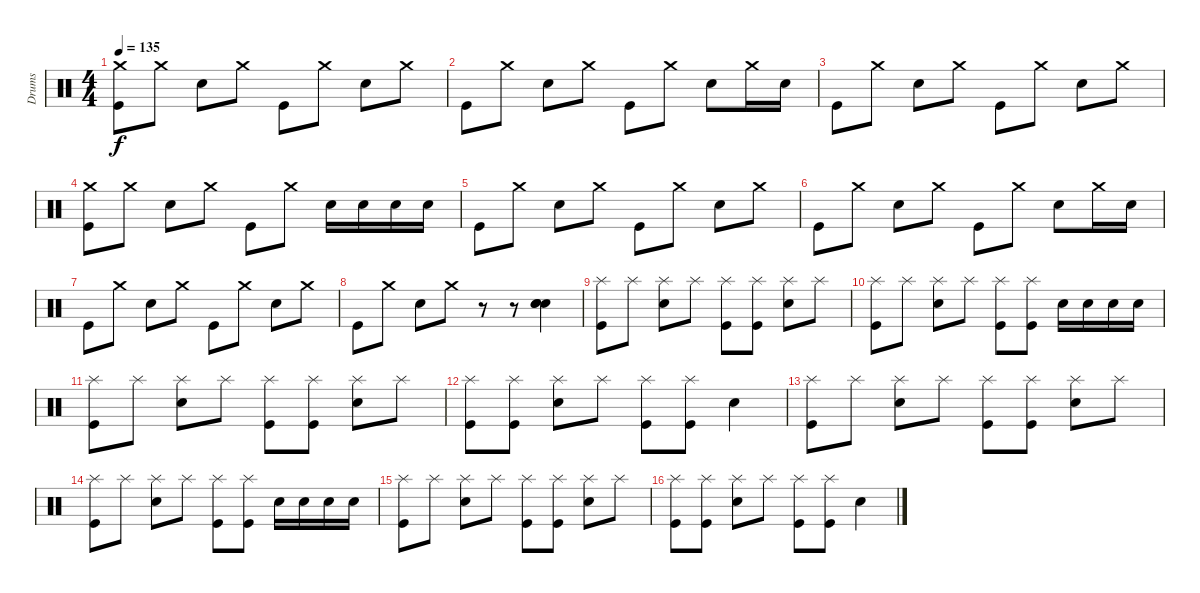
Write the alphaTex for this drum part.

\track ("Drums" "Drums") {instrument percussion}
\staff {score}
\articulation defaults
\ts (4 4)
\tempo 135
\clef neutral
\ks c
("Crash medium (hit)" "Kick (hit)").8{dy f} "Crash medium (hit)".8 "Electric Snare (hit)".8 "Crash medium (hit)".8 "Kick (hit)".8 "Crash medium (hit)".8 "Electric Snare (hit)".8 "Crash medium (hit)".8 |
"Kick (hit)".8 "Crash medium (hit)".8 "Electric Snare (hit)".8 "Crash medium (hit)".8 "Kick (hit)".8 "Crash medium (hit)".8 "Electric Snare (hit)".8 "Crash medium (hit)".16 "Electric Snare (hit)".16 |
"Kick (hit)".8 "Crash medium (hit)".8 "Electric Snare (hit)".8 "Crash medium (hit)".8 "Kick (hit)".8 "Crash medium (hit)".8 "Electric Snare (hit)".8 "Crash medium (hit)".8 |
("Crash medium (hit)" "Kick (hit)").8 "Crash medium (hit)".8 "Electric Snare (hit)".8 "Crash medium (hit)".8 "Kick (hit)".8 "Crash medium (hit)".8 "Electric Snare (hit)".16 "Electric Snare (hit)".16 "Electric Snare (hit)".16 "Electric Snare (hit)".16 |
"Kick (hit)".8 "Crash medium (hit)".8 "Electric Snare (hit)".8 "Crash medium (hit)".8 "Kick (hit)".8 "Crash medium (hit)".8 "Electric Snare (hit)".8 "Crash medium (hit)".8 |
"Kick (hit)".8 "Crash medium (hit)".8 "Electric Snare (hit)".8 "Crash medium (hit)".8 "Kick (hit)".8 "Crash medium (hit)".8 "Electric Snare (hit)".8 "Crash medium (hit)".16 "Electric Snare (hit)".16 |
"Kick (hit)".8 "Crash medium (hit)".8 "Electric Snare (hit)".8 "Crash medium (hit)".8 "Kick (hit)".8 "Crash medium (hit)".8 "Electric Snare (hit)".8 "Crash medium (hit)".8 |
"Kick (hit)".8 "Crash medium (hit)".8 "Electric Snare (hit)".8 "Crash medium (hit)".8 r.8 r.8 ("Hand Clap (hit)" "Hand Clap (hit)" "Hand Clap (hit)").4 |
("Splash (hit)" "Kick (hit)").8 "Splash (hit)".8 ("Splash (hit)" "Electric Snare (hit)").8 "Splash (hit)".8 ("Splash (hit)" "Kick (hit)").8 ("Splash (hit)" "Kick (hit)").8 ("Splash (hit)" "Electric Snare (hit)").8 "Splash (hit)".8 |
("Splash (hit)" "Kick (hit)").8 "Splash (hit)".8 ("Splash (hit)" "Electric Snare (hit)").8 "Splash (hit)".8 ("Splash (hit)" "Kick (hit)").8 ("Splash (hit)" "Kick (hit)").8 "Electric Snare (hit)".16 "Electric Snare (hit)".16 "Electric Snare (hit)".16 "Electric Snare (hit)".16 |
("Splash (hit)" "Kick (hit)").8 "Splash (hit)".8 ("Splash (hit)" "Electric Snare (hit)").8 "Splash (hit)".8 ("Splash (hit)" "Kick (hit)").8 ("Splash (hit)" "Kick (hit)").8 ("Splash (hit)" "Electric Snare (hit)").8 "Splash (hit)".8 |
("Splash (hit)" "Kick (hit)").8 ("Splash (hit)" "Kick (hit)").8 ("Splash (hit)" "Electric Snare (hit)").8 "Splash (hit)".8 ("Splash (hit)" "Kick (hit)").8 ("Splash (hit)" "Kick (hit)").8 "Electric Snare (hit)".4 |
("Splash (hit)" "Kick (hit)").8 "Splash (hit)".8 ("Splash (hit)" "Electric Snare (hit)").8 "Splash (hit)".8 ("Splash (hit)" "Kick (hit)").8 ("Splash (hit)" "Kick (hit)").8 ("Splash (hit)" "Electric Snare (hit)").8 "Splash (hit)".8 |
("Splash (hit)" "Kick (hit)").8 "Splash (hit)".8 ("Splash (hit)" "Electric Snare (hit)").8 "Splash (hit)".8 ("Splash (hit)" "Kick (hit)").8 ("Splash (hit)" "Kick (hit)").8 "Electric Snare (hit)".16 "Electric Snare (hit)".16 "Electric Snare (hit)".16 "Electric Snare (hit)".16 |
("Splash (hit)" "Kick (hit)").8 "Splash (hit)".8 ("Splash (hit)" "Electric Snare (hit)").8 "Splash (hit)".8 ("Splash (hit)" "Kick (hit)").8 ("Splash (hit)" "Kick (hit)").8 ("Splash (hit)" "Electric Snare (hit)").8 "Splash (hit)".8 |
("Splash (hit)" "Kick (hit)").8 ("Splash (hit)" "Kick (hit)").8 ("Splash (hit)" "Electric Snare (hit)").8 "Splash (hit)".8 ("Splash (hit)" "Kick (hit)").8 ("Splash (hit)" "Kick (hit)").8 "Electric Snare (hit)".4
